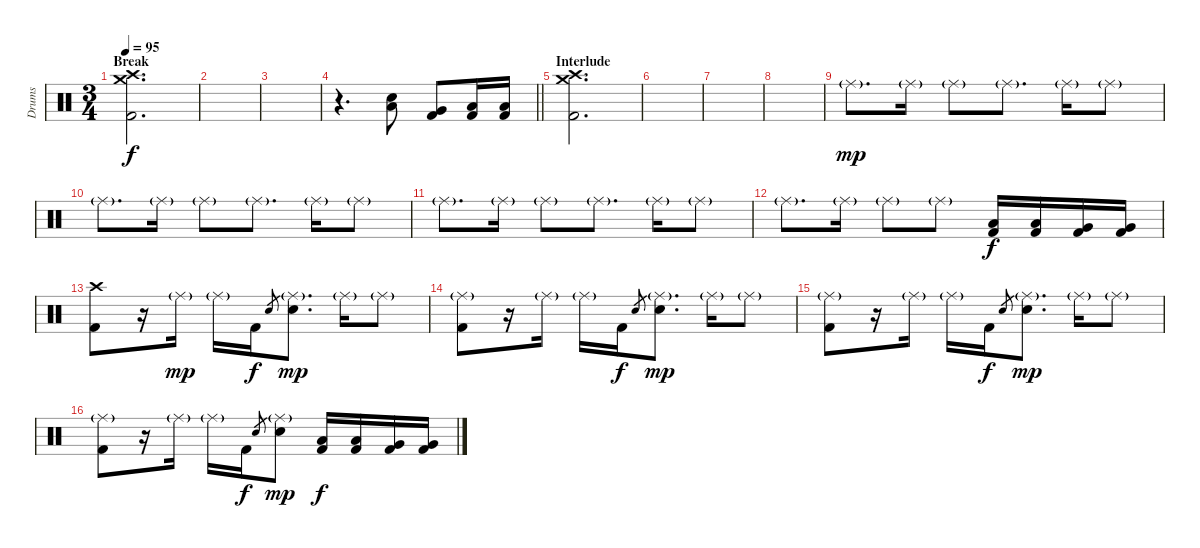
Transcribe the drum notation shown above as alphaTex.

\track ("Drums" "Drums") {instrument percussion}
\staff {score}
\articulation defaults
\ts (3 4)
\section ("" "Break")
\tempo 95
\clef neutral
\ks c
("Crash high (hit)" "Crash medium (hit)" "Kick (hit) 2").2{d dy f} |
|
|
\barLineRight lightlight
r.4{d} ("Electric Snare (hit)" "Low Tom (hit)").8 ("Very Low Tom (hit)" "Kick (hit) 2").8 ("Low Tom (hit)" "Kick (hit) 2").16 ("Low Tom (hit)" "Kick (hit) 2").16 |
\section ("" "Interlude")
("Crash high (hit)" "Crash medium (hit)" "Kick (hit) 2").2{d} |
|
|
|
"Ride (middle)"{g}.8{d dy mp} "Ride (middle)"{g}.16 "Ride (middle)"{g}.8 "Ride (middle)"{g}.8{d} "Ride (middle)"{g}.16 "Ride (middle)"{g}.8 |
"Ride (middle)"{g}.8{d} "Ride (middle)"{g}.16 "Ride (middle)"{g}.8 "Ride (middle)"{g}.8{d} "Ride (middle)"{g}.16 "Ride (middle)"{g}.8 |
"Ride (middle)"{g}.8{d} "Ride (middle)"{g}.16 "Ride (middle)"{g}.8 "Ride (middle)"{g}.8{d} "Ride (middle)"{g}.16 "Ride (middle)"{g}.8 |
"Ride (middle)"{g}.8{d} "Ride (middle)"{g}.16 "Ride (middle)"{g}.8 "Ride (middle)"{g}.8 ("Low Tom (hit)" "Kick (hit) 2").16{dy f} ("Low Tom (hit)" "Kick (hit) 2").16 ("Very Low Tom (hit)" "Kick (hit) 2").16 ("Very Low Tom (hit)" "Kick (hit) 2").16 |
("Crash high (hit)" "Kick (hit) 2").8 r.16 "Ride (middle)"{g}.16{dy mp} "Ride (middle)"{g}.16 "Kick (hit) 2".16{dy f} "Electric Snare (hit)".8{gr} ("Ride (middle)"{g} "Electric Snare (hit)").8{d dy mp} "Ride (middle)"{g}.16 "Ride (middle)"{g}.8 |
("Ride (middle)"{g} "Kick (hit) 2").8 r.16 "Ride (middle)"{g}.16 "Ride (middle)"{g}.16 "Kick (hit) 2".16{dy f} "Electric Snare (hit)".8{gr} ("Ride (middle)"{g} "Electric Snare (hit)").8{d dy mp} "Ride (middle)"{g}.16 "Ride (middle)"{g}.8 |
("Ride (middle)"{g} "Kick (hit) 2").8 r.16 "Ride (middle)"{g}.16 "Ride (middle)"{g}.16 "Kick (hit) 2".16{dy f} "Electric Snare (hit)".8{gr} ("Ride (middle)"{g} "Electric Snare (hit)").8{d dy mp} "Ride (middle)"{g}.16 "Ride (middle)"{g}.8 |
("Ride (middle)"{g} "Kick (hit) 2").8 r.16 "Ride (middle)"{g}.16 "Ride (middle)"{g}.16 "Kick (hit) 2".16{dy f} "Electric Snare (hit)".8{gr} ("Ride (middle)"{g} "Electric Snare (hit)").8{dy mp} ("Low Tom (hit)" "Kick (hit) 2").16{dy f} ("Low Tom (hit)" "Kick (hit) 2").16 ("Very Low Tom (hit)" "Kick (hit) 2").16 ("Very Low Tom (hit)" "Kick (hit) 2").16
